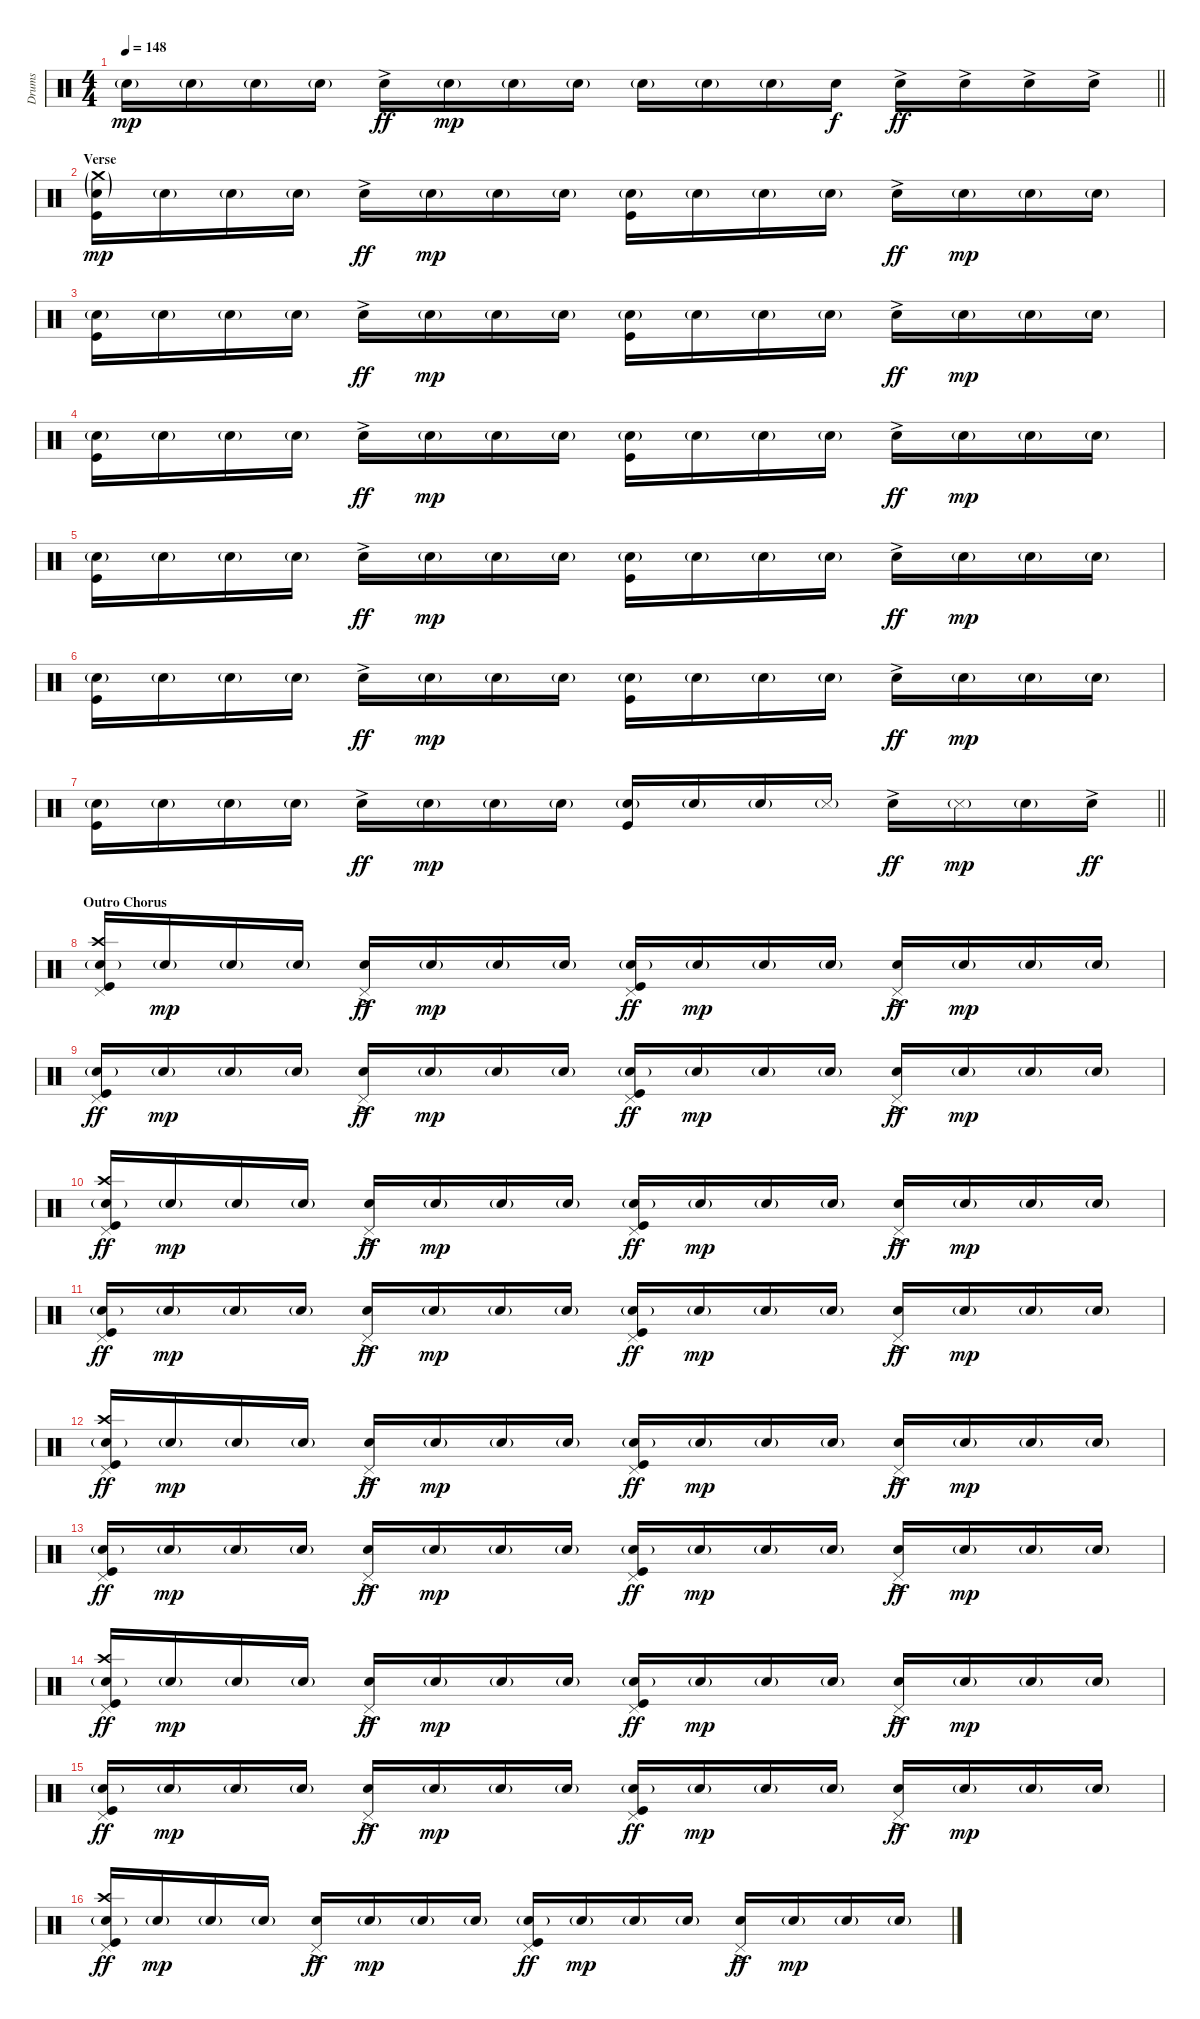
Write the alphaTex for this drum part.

\track ("Drums" "Drums") {instrument percussion}
\staff {score}
\articulation defaults
\ts (4 4)
\tempo 148
\clef neutral
\barLineRight lightlight
\ks c "Snare (hit) 2"{g}.16{dy mp} "Snare (hit) 2"{g}.16 "Snare (hit) 2"{g}.16 "Snare (hit) 2"{g}.16 "Electric Snare (hit)"{ac}.16{dy ff} "Snare (hit) 2"{g}.16{dy mp} "Snare (hit) 2"{g}.16 "Snare (hit) 2"{g}.16 "Snare (hit) 2"{g}.16 "Snare (hit) 2"{g}.16 "Snare (hit) 2"{g}.16 "Electric Snare (hit)".16{dy f} "Electric Snare (hit)"{ac}.16{dy ff} "Electric Snare (hit)"{ac}.16 "Electric Snare (hit)"{ac}.16 "Electric Snare (hit)"{ac}.16
|
\section ("" "Verse")
("Crash medium (hit)"{g} "Snare (hit) 2"{g} "Kick (hit)").16{dy mp beam Down} "Snare (hit) 2"{g}.16{beam Down} "Snare (hit) 2"{g}.16{beam Down} "Snare (hit) 2"{g}.16{beam Down} "Electric Snare (hit)"{ac}.16{dy ff} "Snare (hit) 2"{g}.16{dy mp} "Snare (hit) 2"{g}.16 "Snare (hit) 2"{g}.16 ("Snare (hit) 2"{g} "Kick (hit)").16{beam Down} "Snare (hit) 2"{g}.16{beam Down} "Snare (hit) 2"{g}.16{beam Down} "Snare (hit) 2"{g}.16{beam Down} "Electric Snare (hit)"{ac}.16{dy ff} "Snare (hit) 2"{g}.16{dy mp} "Snare (hit) 2"{g}.16 "Snare (hit) 2"{g}.16 |
("Snare (hit) 2"{g} "Kick (hit)").16{beam Down} "Snare (hit) 2"{g}.16{beam Down} "Snare (hit) 2"{g}.16{beam Down} "Snare (hit) 2"{g}.16{beam Down} "Electric Snare (hit)"{ac}.16{dy ff} "Snare (hit) 2"{g}.16{dy mp} "Snare (hit) 2"{g}.16 "Snare (hit) 2"{g}.16 ("Snare (hit) 2"{g} "Kick (hit)").16{beam Down} "Snare (hit) 2"{g}.16{beam Down} "Snare (hit) 2"{g}.16{beam Down} "Snare (hit) 2"{g}.16{beam Down} "Electric Snare (hit)"{ac}.16{dy ff} "Snare (hit) 2"{g}.16{dy mp} "Snare (hit) 2"{g}.16 "Snare (hit) 2"{g}.16 |
("Snare (hit) 2"{g} "Kick (hit)").16{beam Down} "Snare (hit) 2"{g}.16{beam Down} "Snare (hit) 2"{g}.16{beam Down} "Snare (hit) 2"{g}.16{beam Down} "Electric Snare (hit)"{ac}.16{dy ff} "Snare (hit) 2"{g}.16{dy mp} "Snare (hit) 2"{g}.16 "Snare (hit) 2"{g}.16 ("Snare (hit) 2"{g} "Kick (hit)").16{beam Down} "Snare (hit) 2"{g}.16{beam Down} "Snare (hit) 2"{g}.16{beam Down} "Snare (hit) 2"{g}.16{beam Down} "Electric Snare (hit)"{ac}.16{dy ff} "Snare (hit) 2"{g}.16{dy mp} "Snare (hit) 2"{g}.16 "Snare (hit) 2"{g}.16 |
("Snare (hit) 2"{g} "Kick (hit)").16{beam Down} "Snare (hit) 2"{g}.16{beam Down} "Snare (hit) 2"{g}.16{beam Down} "Snare (hit) 2"{g}.16{beam Down} "Electric Snare (hit)"{ac}.16{dy ff} "Snare (hit) 2"{g}.16{dy mp} "Snare (hit) 2"{g}.16 "Snare (hit) 2"{g}.16 ("Snare (hit) 2"{g} "Kick (hit)").16{beam Down} "Snare (hit) 2"{g}.16{beam Down} "Snare (hit) 2"{g}.16{beam Down} "Snare (hit) 2"{g}.16{beam Down} "Electric Snare (hit)"{ac}.16{dy ff} "Snare (hit) 2"{g}.16{dy mp} "Snare (hit) 2"{g}.16 "Snare (hit) 2"{g}.16 |
("Snare (hit) 2"{g} "Kick (hit)").16{beam Down} "Snare (hit) 2"{g}.16{beam Down} "Snare (hit) 2"{g}.16{beam Down} "Snare (hit) 2"{g}.16{beam Down} "Electric Snare (hit)"{ac}.16{dy ff} "Snare (hit) 2"{g}.16{dy mp} "Snare (hit) 2"{g}.16 "Snare (hit) 2"{g}.16 ("Snare (hit) 2"{g} "Kick (hit)").16{beam Down} "Snare (hit) 2"{g}.16{beam Down} "Snare (hit) 2"{g}.16{beam Down} "Snare (hit) 2"{g}.16{beam Down} "Electric Snare (hit)"{ac}.16{dy ff} "Snare (hit) 2"{g}.16{dy mp} "Snare (hit) 2"{g}.16 "Snare (hit) 2"{g}.16 |
\barLineRight lightlight
("Snare (hit) 2"{g} "Kick (hit)").16{beam Down} "Snare (hit) 2"{g}.16{beam Down} "Snare (hit) 2"{g}.16{beam Down} "Snare (hit) 2"{g}.16{beam Down} "Electric Snare (hit)"{ac}.16{dy ff} "Snare (hit) 2"{g}.16{dy mp} "Snare (hit) 2"{g}.16 "Snare (hit) 2"{g}.16 ("Snare (hit) 2"{g} "Kick (hit)").16 "Snare (hit) 2"{g}.16 "Snare (hit) 2"{g}.16 "Snare (side stick) 3"{g}.16 "Electric Snare (hit)"{ac}.16{dy ff} "Snare (side stick) 3"{g}.16{dy mp} "Snare (hit) 2"{g}.16 "Electric Snare (hit)"{ac}.16{dy ff} |
\section ("" "Outro Chorus")
("Crash high (hit)" "Pedal Hi-Hat (hit)" "Snare (hit) 2"{g} "Kick (hit)").16 "Snare (hit) 2"{g}.16{dy mp} "Snare (hit) 2"{g}.16 "Snare (hit) 2"{g}.16 ("Pedal Hi-Hat (hit)" "Electric Snare (hit)"{ac}).16{dy ff} "Snare (hit) 2"{g}.16{dy mp} "Snare (hit) 2"{g}.16 "Snare (hit) 2"{g}.16 ("Pedal Hi-Hat (hit)" "Snare (hit) 2"{g} "Kick (hit)").16{dy ff} "Snare (hit) 2"{g}.16{dy mp} "Snare (hit) 2"{g}.16 "Snare (hit) 2"{g}.16 ("Pedal Hi-Hat (hit)" "Electric Snare (hit)"{ac}).16{dy ff} "Snare (hit) 2"{g}.16{dy mp} "Snare (hit) 2"{g}.16 "Snare (hit) 2"{g}.16 |
("Pedal Hi-Hat (hit)" "Snare (hit) 2"{g} "Kick (hit)").16{dy ff} "Snare (hit) 2"{g}.16{dy mp} "Snare (hit) 2"{g}.16 "Snare (hit) 2"{g}.16 ("Pedal Hi-Hat (hit)" "Electric Snare (hit)"{ac}).16{dy ff} "Snare (hit) 2"{g}.16{dy mp} "Snare (hit) 2"{g}.16 "Snare (hit) 2"{g}.16 ("Pedal Hi-Hat (hit)" "Snare (hit) 2"{g} "Kick (hit)").16{dy ff} "Snare (hit) 2"{g}.16{dy mp} "Snare (hit) 2"{g}.16 "Snare (hit) 2"{g}.16 ("Pedal Hi-Hat (hit)" "Electric Snare (hit)"{ac}).16{dy ff} "Snare (hit) 2"{g}.16{dy mp} "Snare (hit) 2"{g}.16 "Snare (hit) 2"{g}.16 |
("Crash high (hit)" "Pedal Hi-Hat (hit)" "Snare (hit) 2"{g} "Kick (hit)").16{dy ff} "Snare (hit) 2"{g}.16{dy mp} "Snare (hit) 2"{g}.16 "Snare (hit) 2"{g}.16 ("Pedal Hi-Hat (hit)" "Electric Snare (hit)"{ac}).16{dy ff} "Snare (hit) 2"{g}.16{dy mp} "Snare (hit) 2"{g}.16 "Snare (hit) 2"{g}.16 ("Pedal Hi-Hat (hit)" "Snare (hit) 2"{g} "Kick (hit)").16{dy ff} "Snare (hit) 2"{g}.16{dy mp} "Snare (hit) 2"{g}.16 "Snare (hit) 2"{g}.16 ("Pedal Hi-Hat (hit)" "Electric Snare (hit)"{ac}).16{dy ff} "Snare (hit) 2"{g}.16{dy mp} "Snare (hit) 2"{g}.16 "Snare (hit) 2"{g}.16 |
("Pedal Hi-Hat (hit)" "Snare (hit) 2"{g} "Kick (hit)").16{dy ff} "Snare (hit) 2"{g}.16{dy mp} "Snare (hit) 2"{g}.16 "Snare (hit) 2"{g}.16 ("Pedal Hi-Hat (hit)" "Electric Snare (hit)"{ac}).16{dy ff} "Snare (hit) 2"{g}.16{dy mp} "Snare (hit) 2"{g}.16 "Snare (hit) 2"{g}.16 ("Pedal Hi-Hat (hit)" "Snare (hit) 2"{g} "Kick (hit)").16{dy ff} "Snare (hit) 2"{g}.16{dy mp} "Snare (hit) 2"{g}.16 "Snare (hit) 2"{g}.16 ("Pedal Hi-Hat (hit)" "Electric Snare (hit)"{ac}).16{dy ff} "Snare (hit) 2"{g}.16{dy mp} "Snare (hit) 2"{g}.16 "Snare (hit) 2"{g}.16 |
("Crash high (hit)" "Pedal Hi-Hat (hit)" "Snare (hit) 2"{g} "Kick (hit)").16{dy ff} "Snare (hit) 2"{g}.16{dy mp} "Snare (hit) 2"{g}.16 "Snare (hit) 2"{g}.16 ("Pedal Hi-Hat (hit)" "Electric Snare (hit)"{ac}).16{dy ff} "Snare (hit) 2"{g}.16{dy mp} "Snare (hit) 2"{g}.16 "Snare (hit) 2"{g}.16 ("Pedal Hi-Hat (hit)" "Snare (hit) 2"{g} "Kick (hit)").16{dy ff} "Snare (hit) 2"{g}.16{dy mp} "Snare (hit) 2"{g}.16 "Snare (hit) 2"{g}.16 ("Pedal Hi-Hat (hit)" "Electric Snare (hit)"{ac}).16{dy ff} "Snare (hit) 2"{g}.16{dy mp} "Snare (hit) 2"{g}.16 "Snare (hit) 2"{g}.16 |
("Pedal Hi-Hat (hit)" "Snare (hit) 2"{g} "Kick (hit)").16{dy ff} "Snare (hit) 2"{g}.16{dy mp} "Snare (hit) 2"{g}.16 "Snare (hit) 2"{g}.16 ("Pedal Hi-Hat (hit)" "Electric Snare (hit)"{ac}).16{dy ff} "Snare (hit) 2"{g}.16{dy mp} "Snare (hit) 2"{g}.16 "Snare (hit) 2"{g}.16 ("Pedal Hi-Hat (hit)" "Snare (hit) 2"{g} "Kick (hit)").16{dy ff} "Snare (hit) 2"{g}.16{dy mp} "Snare (hit) 2"{g}.16 "Snare (hit) 2"{g}.16 ("Pedal Hi-Hat (hit)" "Electric Snare (hit)"{ac}).16{dy ff} "Snare (hit) 2"{g}.16{dy mp} "Snare (hit) 2"{g}.16 "Snare (hit) 2"{g}.16 |
("Crash high (hit)" "Pedal Hi-Hat (hit)" "Snare (hit) 2"{g} "Kick (hit)").16{dy ff} "Snare (hit) 2"{g}.16{dy mp} "Snare (hit) 2"{g}.16 "Snare (hit) 2"{g}.16 ("Pedal Hi-Hat (hit)" "Electric Snare (hit)"{ac}).16{dy ff} "Snare (hit) 2"{g}.16{dy mp} "Snare (hit) 2"{g}.16 "Snare (hit) 2"{g}.16 ("Pedal Hi-Hat (hit)" "Snare (hit) 2"{g} "Kick (hit)").16{dy ff} "Snare (hit) 2"{g}.16{dy mp} "Snare (hit) 2"{g}.16 "Snare (hit) 2"{g}.16 ("Pedal Hi-Hat (hit)" "Electric Snare (hit)"{ac}).16{dy ff} "Snare (hit) 2"{g}.16{dy mp} "Snare (hit) 2"{g}.16 "Snare (hit) 2"{g}.16 |
("Pedal Hi-Hat (hit)" "Snare (hit) 2"{g} "Kick (hit)").16{dy ff} "Snare (hit) 2"{g}.16{dy mp} "Snare (hit) 2"{g}.16 "Snare (hit) 2"{g}.16 ("Pedal Hi-Hat (hit)" "Electric Snare (hit)"{ac}).16{dy ff} "Snare (hit) 2"{g}.16{dy mp} "Snare (hit) 2"{g}.16 "Snare (hit) 2"{g}.16 ("Pedal Hi-Hat (hit)" "Snare (hit) 2"{g} "Kick (hit)").16{dy ff} "Snare (hit) 2"{g}.16{dy mp} "Snare (hit) 2"{g}.16 "Snare (hit) 2"{g}.16 ("Pedal Hi-Hat (hit)" "Electric Snare (hit)"{ac}).16{dy ff} "Snare (hit) 2"{g}.16{dy mp} "Snare (hit) 2"{g}.16 "Snare (hit) 2"{g}.16 |
("Crash high (hit)" "Pedal Hi-Hat (hit)" "Snare (hit) 2"{g} "Kick (hit)").16{dy ff} "Snare (hit) 2"{g}.16{dy mp} "Snare (hit) 2"{g}.16 "Snare (hit) 2"{g}.16 ("Pedal Hi-Hat (hit)" "Electric Snare (hit)"{ac}).16{dy ff} "Snare (hit) 2"{g}.16{dy mp} "Snare (hit) 2"{g}.16 "Snare (hit) 2"{g}.16 ("Pedal Hi-Hat (hit)" "Snare (hit) 2"{g} "Kick (hit)").16{dy ff} "Snare (hit) 2"{g}.16{dy mp} "Snare (hit) 2"{g}.16 "Snare (hit) 2"{g}.16 ("Pedal Hi-Hat (hit)" "Electric Snare (hit)"{ac}).16{dy ff} "Snare (hit) 2"{g}.16{dy mp} "Snare (hit) 2"{g}.16 "Snare (hit) 2"{g}.16
